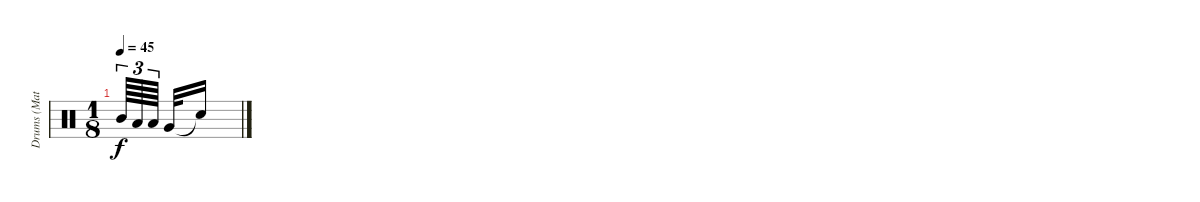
\track ("Drums (Matt)" "Drums (Mat") {instrument percussion}
\staff {score}
\articulation defaults
\ts (1 8)
\tempo 45
\clef neutral
\ks c "Mid Tom (hit)".64{tu (3 2) dy f} "Low Tom (hit)".64{tu (3 2)} "Low Tom (hit)".64{tu (3 2)} "Very Low Tom (hit)".32 "Snare (hit)"{t}.16
